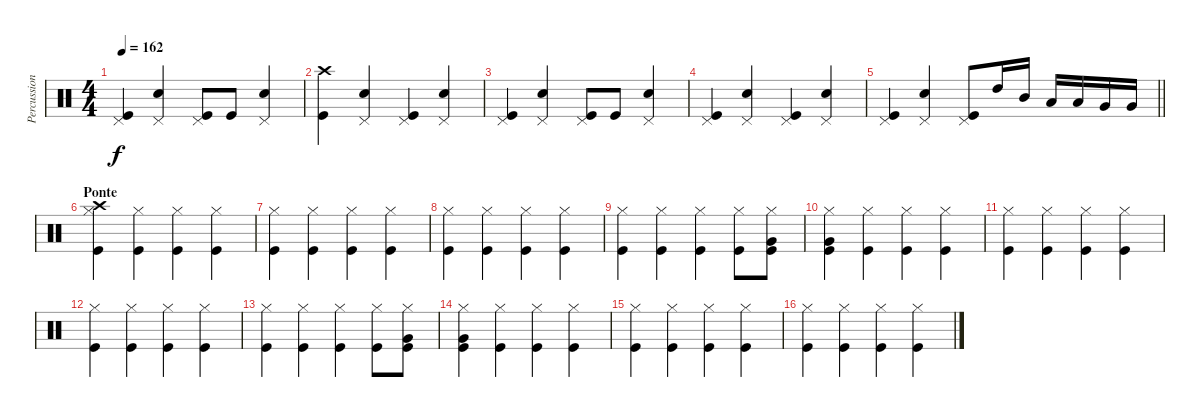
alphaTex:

\track ("Percussioni" "Percussion") {instrument percussion}
\staff {score}
\articulation defaults
\ts (4 4)
\tempo 162
\clef neutral
\ks c
("Pedal Hi-Hat (hit)" "Kick (hit)").4{dy f} ("Pedal Hi-Hat (hit)" "Snare (hit) 2").4 ("Pedal Hi-Hat (hit)" "Kick (hit)").8 "Kick (hit)".8 ("Pedal Hi-Hat (hit)" "Snare (hit) 2").4 |
("Crash high (hit)" "Kick (hit)").4 ("Pedal Hi-Hat (hit)" "Snare (hit) 2").4 ("Pedal Hi-Hat (hit)" "Kick (hit)").4 ("Pedal Hi-Hat (hit)" "Snare (hit) 2").4 |
("Pedal Hi-Hat (hit)" "Kick (hit)").4 ("Pedal Hi-Hat (hit)" "Snare (hit) 2").4 ("Pedal Hi-Hat (hit)" "Kick (hit)").8 "Kick (hit)".8 ("Pedal Hi-Hat (hit)" "Snare (hit) 2").4 |
("Pedal Hi-Hat (hit)" "Kick (hit)").4 ("Pedal Hi-Hat (hit)" "Snare (hit) 2").4 ("Pedal Hi-Hat (hit)" "Kick (hit)").4 ("Pedal Hi-Hat (hit)" "Snare (hit) 2").4 |
\barLineRight lightlight
("Pedal Hi-Hat (hit)" "Kick (hit)").4 ("Pedal Hi-Hat (hit)" "Snare (hit) 2").4 ("Pedal Hi-Hat (hit)" "Kick (hit)").8 "High Tom (hit)".16 "Mid Tom (hit)".16 "Low Tom (hit)".16 "Low Tom (hit)".16 "Very Low Tom (hit)".16 "Very Low Tom (hit)".16 |
\section ("" "Ponte")
("Kick (hit)" "Hi-Hat (closed)" "Crash high (hit)").4 ("Kick (hit)" "Hi-Hat (closed)").4 ("Kick (hit)" "Hi-Hat (closed)").4 ("Kick (hit)" "Hi-Hat (closed)").4 |
("Kick (hit)" "Hi-Hat (closed)").4 ("Kick (hit)" "Hi-Hat (closed)").4 ("Kick (hit)" "Hi-Hat (closed)").4 ("Kick (hit)" "Hi-Hat (closed)").4 |
("Kick (hit)" "Hi-Hat (closed)").4 ("Kick (hit)" "Hi-Hat (closed)").4 ("Kick (hit)" "Hi-Hat (closed)").4 ("Kick (hit)" "Hi-Hat (closed)").4 |
("Kick (hit)" "Hi-Hat (closed)").4 ("Kick (hit)" "Hi-Hat (closed)").4 ("Kick (hit)" "Hi-Hat (closed)").4 ("Kick (hit)" "Hi-Hat (closed)").8 ("Very Low Tom (hit)" "Kick (hit)" "Hi-Hat (closed)").8 |
("Very Low Tom (hit)" "Kick (hit)" "Hi-Hat (closed)").4 ("Kick (hit)" "Hi-Hat (closed)").4 ("Kick (hit)" "Hi-Hat (closed)").4 ("Kick (hit)" "Hi-Hat (closed)").4 |
("Kick (hit)" "Hi-Hat (closed)").4 ("Kick (hit)" "Hi-Hat (closed)").4 ("Kick (hit)" "Hi-Hat (closed)").4 ("Kick (hit)" "Hi-Hat (closed)").4 |
("Kick (hit)" "Hi-Hat (closed)").4 ("Kick (hit)" "Hi-Hat (closed)").4 ("Kick (hit)" "Hi-Hat (closed)").4 ("Kick (hit)" "Hi-Hat (closed)").4 |
("Kick (hit)" "Hi-Hat (closed)").4 ("Kick (hit)" "Hi-Hat (closed)").4 ("Kick (hit)" "Hi-Hat (closed)").4 ("Kick (hit)" "Hi-Hat (closed)").8 ("Very Low Tom (hit)" "Kick (hit)" "Hi-Hat (closed)").8 |
("Very Low Tom (hit)" "Kick (hit)" "Hi-Hat (closed)").4 ("Kick (hit)" "Hi-Hat (closed)").4 ("Kick (hit)" "Hi-Hat (closed)").4 ("Kick (hit)" "Hi-Hat (closed)").4 |
("Kick (hit)" "Hi-Hat (closed)").4 ("Kick (hit)" "Hi-Hat (closed)").4 ("Kick (hit)" "Hi-Hat (closed)").4 ("Kick (hit)" "Hi-Hat (closed)").4 |
("Kick (hit)" "Hi-Hat (closed)").4 ("Kick (hit)" "Hi-Hat (closed)").4 ("Kick (hit)" "Hi-Hat (closed)").4 ("Kick (hit)" "Hi-Hat (closed)").4
